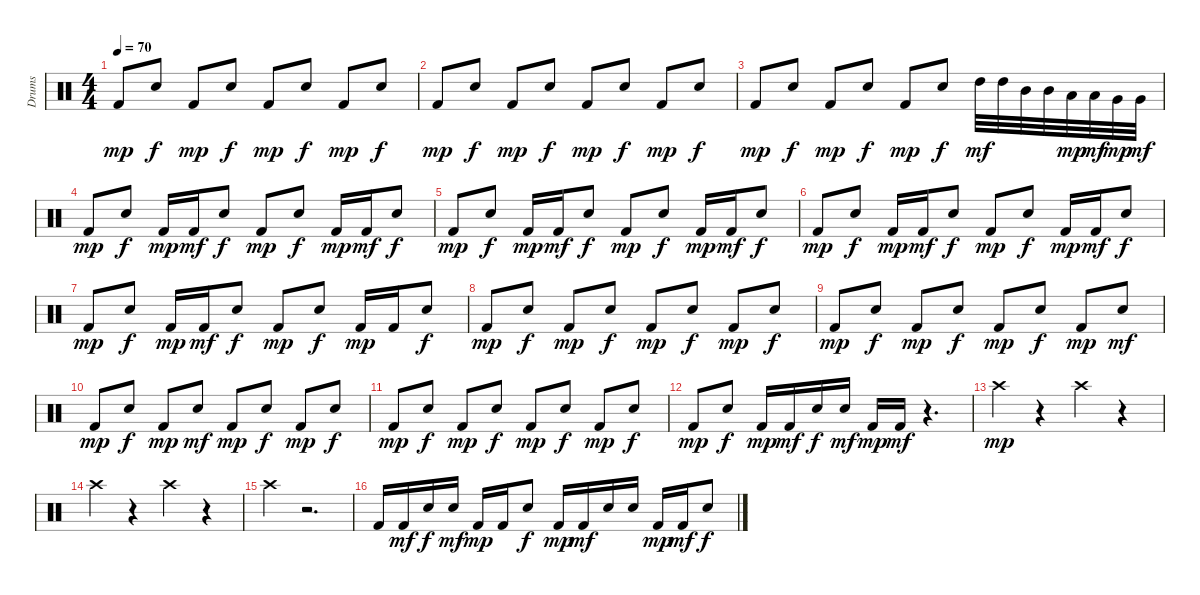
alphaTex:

\track ("Drums" "Drums") {instrument percussion}
\staff {score}
\articulation defaults
\ts (4 4)
\tempo 70
\clef neutral
\ks c "Kick (hit) 2".8{dy mp} "Snare (hit) 2".8{dy f} "Kick (hit) 2".8{dy mp} "Snare (hit) 2".8{dy f} "Kick (hit) 2".8{dy mp} "Snare (hit) 2".8{dy f} "Kick (hit) 2".8{dy mp} "Snare (hit) 2".8{dy f}
|
"Kick (hit) 2".8{dy mp} "Snare (hit) 2".8{dy f} "Kick (hit) 2".8{dy mp} "Snare (hit) 2".8{dy f} "Kick (hit) 2".8{dy mp} "Snare (hit) 2".8{dy f} "Kick (hit) 2".8{dy mp} "Snare (hit) 2".8{dy f} |
"Kick (hit) 2".8{dy mp} "Snare (hit) 2".8{dy f} "Kick (hit) 2".8{dy mp} "Snare (hit) 2".8{dy f} "Kick (hit) 2".8{dy mp} "Snare (hit) 2".8{dy f} "High Tom (hit)".32{dy mf} "High Tom (hit)".32 "Mid Tom (hit)".32 "Mid Tom (hit)".32 "Low Tom (hit)".32{dy mp} "Low Tom (hit)".32{dy mf} "Very Low Tom (hit)".32{dy mp} "Very Low Tom (hit)".32{dy mf} |
"Kick (hit) 2".8{dy mp} "Snare (hit) 2".8{dy f} "Kick (hit) 2".16{dy mp} "Kick (hit) 2".16{dy mf} "Snare (hit) 2".8{dy f} "Kick (hit) 2".8{dy mp} "Snare (hit) 2".8{dy f} "Kick (hit) 2".16{dy mp} "Kick (hit) 2".16{dy mf} "Snare (hit) 2".8{dy f} |
"Kick (hit) 2".8{dy mp} "Snare (hit) 2".8{dy f} "Kick (hit) 2".16{dy mp} "Kick (hit) 2".16{dy mf} "Snare (hit) 2".8{dy f} "Kick (hit) 2".8{dy mp} "Snare (hit) 2".8{dy f} "Kick (hit) 2".16{dy mp} "Kick (hit) 2".16{dy mf} "Snare (hit) 2".8{dy f} |
"Kick (hit) 2".8{dy mp} "Snare (hit) 2".8{dy f} "Kick (hit) 2".16{dy mp} "Kick (hit) 2".16{dy mf} "Snare (hit) 2".8{dy f} "Kick (hit) 2".8{dy mp} "Snare (hit) 2".8{dy f} "Kick (hit) 2".16{dy mp} "Kick (hit) 2".16{dy mf} "Snare (hit) 2".8{dy f} |
"Kick (hit) 2".8{dy mp} "Snare (hit) 2".8{dy f} "Kick (hit) 2".16{dy mp} "Kick (hit) 2".16{dy mf} "Snare (hit) 2".8{dy f} "Kick (hit) 2".8{dy mp} "Snare (hit) 2".8{dy f} "Kick (hit) 2".16{dy mp} "Kick (hit) 2".16 "Snare (hit) 2".8{dy f} |
"Kick (hit) 2".8{dy mp} "Snare (hit) 2".8{dy f} "Kick (hit) 2".8{dy mp} "Snare (hit) 2".8{dy f} "Kick (hit) 2".8{dy mp} "Snare (hit) 2".8{dy f} "Kick (hit) 2".8{dy mp} "Snare (hit) 2".8{dy f} |
"Kick (hit) 2".8{dy mp} "Snare (hit) 2".8{dy f} "Kick (hit) 2".8{dy mp} "Snare (hit) 2".8{dy f} "Kick (hit) 2".8{dy mp} "Snare (hit) 2".8{dy f} "Kick (hit) 2".8{dy mp} "Snare (hit) 2".8{dy mf} |
"Kick (hit) 2".8{dy mp} "Snare (hit) 2".8{dy f} "Kick (hit) 2".8{dy mp} "Snare (hit) 2".8{dy mf} "Kick (hit) 2".8{dy mp} "Snare (hit) 2".8{dy f} "Kick (hit) 2".8{dy mp} "Snare (hit) 2".8{dy f} |
"Kick (hit) 2".8{dy mp} "Snare (hit) 2".8{dy f} "Kick (hit) 2".8{dy mp} "Snare (hit) 2".8{dy f} "Kick (hit) 2".8{dy mp} "Snare (hit) 2".8{dy f} "Kick (hit) 2".8{dy mp} "Snare (hit) 2".8{dy f} |
"Kick (hit) 2".8{dy mp} "Snare (hit) 2".8{dy f} "Kick (hit) 2".16{dy mp} "Kick (hit) 2".16{dy mf} "Snare (hit) 2".16{dy f} "Snare (hit) 2".16{dy mf} "Kick (hit) 2".16{dy mp} "Kick (hit) 2".16{dy mf} r.4{d} |
"Crash high (hit)".4{dy mp} r.4 "Crash high (hit)".4 r.4 |
"Crash high (hit)".4 r.4 "Crash high (hit)".4 r.4 |
"Crash high (hit)".4 r.2{d} |
"Kick (hit) 2".16 "Kick (hit) 2".16{dy mf} "Snare (hit) 2".16{dy f} "Snare (hit) 2".16{dy mf} "Kick (hit) 2".16{dy mp} "Kick (hit) 2".16 "Snare (hit) 2".8{dy f} "Kick (hit) 2".16{dy mp} "Kick (hit) 2".16{dy mf} "Snare (hit) 2".16 "Snare (hit) 2".16 "Kick (hit) 2".16{dy mp} "Kick (hit) 2".16{dy mf} "Snare (hit) 2".8{dy f}
